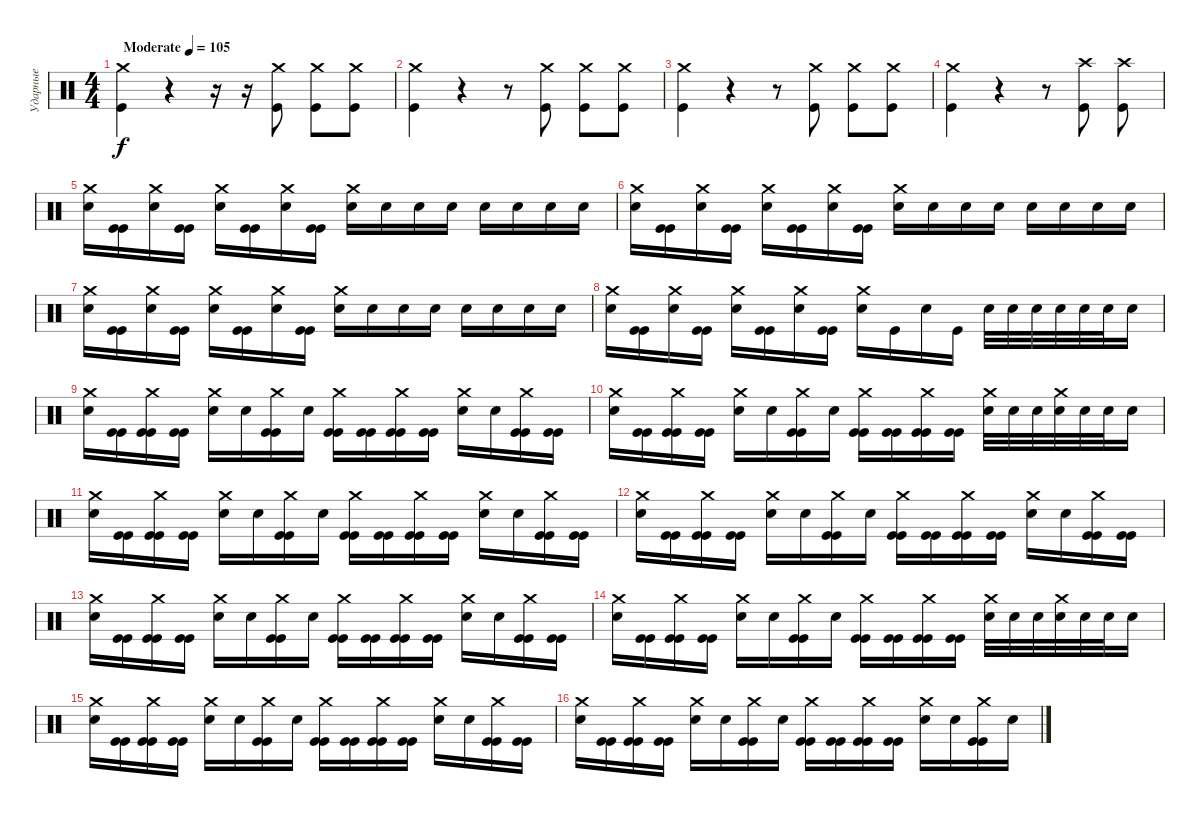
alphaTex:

\track ("Ударные" "Ударные") {instrument percussion}
\staff {score}
\articulation defaults
\ts (4 4)
\tempo (105 "Moderate")
\clef neutral
\ks c
("Crash medium (hit)" "Kick (hit)").4{dy f} r.4 r.16 r.16 ("Crash medium (hit)" "Kick (hit)").8 ("Crash medium (hit)" "Kick (hit)").8 ("Crash medium (hit)" "Kick (hit)").8 |
("Crash medium (hit)" "Kick (hit)").4 r.4 r.8 ("Crash medium (hit)" "Kick (hit)").8 ("Crash medium (hit)" "Kick (hit)").8 ("Crash medium (hit)" "Kick (hit)").8 |
("Crash medium (hit)" "Kick (hit)").4 r.4 r.8 ("Crash medium (hit)" "Kick (hit)").8 ("Crash medium (hit)" "Kick (hit)").8 ("Crash medium (hit)" "Kick (hit)").8 |
("Crash medium (hit)" "Kick (hit)").4 r.4 r.8 ("Crash high (hit)" "Kick (hit)").8 ("Crash high (hit)" "Kick (hit)").8 |
("Crash medium (hit)" "Electric Snare (hit)").16 ("Kick (hit)" "Kick (hit)").16 ("Crash medium (hit)" "Electric Snare (hit)").16 ("Kick (hit)" "Kick (hit)").16 ("Crash medium (hit)" "Electric Snare (hit)").16 ("Kick (hit)" "Kick (hit)").16 ("Crash medium (hit)" "Electric Snare (hit)").16 ("Kick (hit)" "Kick (hit)").16 ("Crash medium (hit)" "Electric Snare (hit)").16 "Electric Snare (hit)".16 "Electric Snare (hit)".16 "Electric Snare (hit)".16 "Electric Snare (hit)".16 "Electric Snare (hit)".16 "Electric Snare (hit)".16 "Electric Snare (hit)".16 |
("Crash medium (hit)" "Electric Snare (hit)").16 ("Kick (hit)" "Kick (hit)").16 ("Crash medium (hit)" "Electric Snare (hit)").16 ("Kick (hit)" "Kick (hit)").16 ("Crash medium (hit)" "Electric Snare (hit)").16 ("Kick (hit)" "Kick (hit)").16 ("Crash medium (hit)" "Electric Snare (hit)").16 ("Kick (hit)" "Kick (hit)").16 ("Crash medium (hit)" "Electric Snare (hit)").16 "Electric Snare (hit)".16 "Electric Snare (hit)".16 "Electric Snare (hit)".16 "Electric Snare (hit)".16 "Electric Snare (hit)".16 "Electric Snare (hit)".16 "Electric Snare (hit)".16 |
("Crash medium (hit)" "Electric Snare (hit)").16 ("Kick (hit)" "Kick (hit)").16 ("Crash medium (hit)" "Electric Snare (hit)").16 ("Kick (hit)" "Kick (hit)").16 ("Crash medium (hit)" "Electric Snare (hit)").16 ("Kick (hit)" "Kick (hit)").16 ("Crash medium (hit)" "Electric Snare (hit)").16 ("Kick (hit)" "Kick (hit)").16 ("Crash medium (hit)" "Electric Snare (hit)").16 "Electric Snare (hit)".16 "Electric Snare (hit)".16 "Electric Snare (hit)".16 "Electric Snare (hit)".16 "Electric Snare (hit)".16 "Electric Snare (hit)".16 "Electric Snare (hit)".16 |
("Crash medium (hit)" "Electric Snare (hit)").16 ("Kick (hit)" "Kick (hit)").16 ("Crash medium (hit)" "Electric Snare (hit)").16 ("Kick (hit)" "Kick (hit)").16 ("Crash medium (hit)" "Electric Snare (hit)").16 ("Kick (hit)" "Kick (hit)").16 ("Crash medium (hit)" "Electric Snare (hit)").16 ("Kick (hit)" "Kick (hit)").16 ("Crash medium (hit)" "Electric Snare (hit)").16 "Kick (hit)".16 "Electric Snare (hit)".16 "Kick (hit)".16 "Electric Snare (hit)".32 "Electric Snare (hit)".32 "Electric Snare (hit)".32 "Electric Snare (hit)".32 "Electric Snare (hit)".32 "Electric Snare (hit)".32 "Electric Snare (hit)".16 |
("Crash medium (hit)" "Electric Snare (hit)").16 ("Kick (hit)" "Kick (hit)").16 ("Crash medium (hit)" "Kick (hit)" "Kick (hit)").16 ("Kick (hit)" "Kick (hit)").16 ("Crash medium (hit)" "Electric Snare (hit)").16 "Electric Snare (hit)".16 ("Crash medium (hit)" "Kick (hit)" "Kick (hit)").16 "Electric Snare (hit)".16 ("Crash medium (hit)" "Kick (hit)" "Kick (hit)").16 ("Kick (hit)" "Kick (hit)").16 ("Crash medium (hit)" "Kick (hit)" "Kick (hit)").16 ("Kick (hit)" "Kick (hit)").16 ("Crash medium (hit)" "Electric Snare (hit)").16 "Electric Snare (hit)".16 ("Crash medium (hit)" "Kick (hit)" "Kick (hit)").16 ("Kick (hit)" "Kick (hit)").16 |
("Crash medium (hit)" "Electric Snare (hit)").16 ("Kick (hit)" "Kick (hit)").16 ("Crash medium (hit)" "Kick (hit)" "Kick (hit)").16 ("Kick (hit)" "Kick (hit)").16 ("Crash medium (hit)" "Electric Snare (hit)").16 "Electric Snare (hit)".16 ("Crash medium (hit)" "Kick (hit)" "Kick (hit)").16 "Electric Snare (hit)".16 ("Crash medium (hit)" "Kick (hit)" "Kick (hit)").16 ("Kick (hit)" "Kick (hit)").16 ("Crash medium (hit)" "Kick (hit)" "Kick (hit)").16 ("Kick (hit)" "Kick (hit)").16 ("Crash medium (hit)" "Electric Snare (hit)").32 "Electric Snare (hit)".32 "Electric Snare (hit)".32 ("Crash medium (hit)" "Electric Snare (hit)").32 "Electric Snare (hit)".32 "Electric Snare (hit)".32 "Electric Snare (hit)".16 |
("Crash medium (hit)" "Electric Snare (hit)").16 ("Kick (hit)" "Kick (hit)").16 ("Crash medium (hit)" "Kick (hit)" "Kick (hit)").16 ("Kick (hit)" "Kick (hit)").16 ("Crash medium (hit)" "Electric Snare (hit)").16 "Electric Snare (hit)".16 ("Crash medium (hit)" "Kick (hit)" "Kick (hit)").16 "Electric Snare (hit)".16 ("Crash medium (hit)" "Kick (hit)" "Kick (hit)").16 ("Kick (hit)" "Kick (hit)").16 ("Crash medium (hit)" "Kick (hit)" "Kick (hit)").16 ("Kick (hit)" "Kick (hit)").16 ("Crash medium (hit)" "Electric Snare (hit)").16 "Electric Snare (hit)".16 ("Crash medium (hit)" "Kick (hit)" "Kick (hit)").16 ("Kick (hit)" "Kick (hit)").16 |
("Crash medium (hit)" "Electric Snare (hit)").16 ("Kick (hit)" "Kick (hit)").16 ("Crash medium (hit)" "Kick (hit)" "Kick (hit)").16 ("Kick (hit)" "Kick (hit)").16 ("Crash medium (hit)" "Electric Snare (hit)").16 "Electric Snare (hit)".16 ("Crash medium (hit)" "Kick (hit)" "Kick (hit)").16 "Electric Snare (hit)".16 ("Crash medium (hit)" "Kick (hit)" "Kick (hit)").16 ("Kick (hit)" "Kick (hit)").16 ("Crash medium (hit)" "Kick (hit)" "Kick (hit)").16 ("Kick (hit)" "Kick (hit)").16 ("Crash medium (hit)" "Electric Snare (hit)").16 "Electric Snare (hit)".16 ("Crash medium (hit)" "Kick (hit)" "Kick (hit)").16 ("Kick (hit)" "Kick (hit)").16 |
("Crash medium (hit)" "Electric Snare (hit)").16 ("Kick (hit)" "Kick (hit)").16 ("Crash medium (hit)" "Kick (hit)" "Kick (hit)").16 ("Kick (hit)" "Kick (hit)").16 ("Crash medium (hit)" "Electric Snare (hit)").16 "Electric Snare (hit)".16 ("Crash medium (hit)" "Kick (hit)" "Kick (hit)").16 "Electric Snare (hit)".16 ("Crash medium (hit)" "Kick (hit)" "Kick (hit)").16 ("Kick (hit)" "Kick (hit)").16 ("Crash medium (hit)" "Kick (hit)" "Kick (hit)").16 ("Kick (hit)" "Kick (hit)").16 ("Crash medium (hit)" "Electric Snare (hit)").16 "Electric Snare (hit)".16 ("Crash medium (hit)" "Kick (hit)" "Kick (hit)").16 ("Kick (hit)" "Kick (hit)").16 |
("Crash medium (hit)" "Electric Snare (hit)").16 ("Kick (hit)" "Kick (hit)").16 ("Crash medium (hit)" "Kick (hit)" "Kick (hit)").16 ("Kick (hit)" "Kick (hit)").16 ("Crash medium (hit)" "Electric Snare (hit)").16 "Electric Snare (hit)".16 ("Crash medium (hit)" "Kick (hit)" "Kick (hit)").16 "Electric Snare (hit)".16 ("Crash medium (hit)" "Kick (hit)" "Kick (hit)").16 ("Kick (hit)" "Kick (hit)").16 ("Crash medium (hit)" "Kick (hit)" "Kick (hit)").16 ("Kick (hit)" "Kick (hit)").16 ("Crash medium (hit)" "Electric Snare (hit)").32 "Electric Snare (hit)".32 "Electric Snare (hit)".32 ("Crash medium (hit)" "Electric Snare (hit)").32 "Electric Snare (hit)".32 "Electric Snare (hit)".32 "Electric Snare (hit)".16 |
("Crash medium (hit)" "Electric Snare (hit)").16 ("Kick (hit)" "Kick (hit)").16 ("Crash medium (hit)" "Kick (hit)" "Kick (hit)").16 ("Kick (hit)" "Kick (hit)").16 ("Crash medium (hit)" "Electric Snare (hit)").16 "Electric Snare (hit)".16 ("Crash medium (hit)" "Kick (hit)" "Kick (hit)").16 "Electric Snare (hit)".16 ("Crash medium (hit)" "Kick (hit)" "Kick (hit)").16 ("Kick (hit)" "Kick (hit)").16 ("Crash medium (hit)" "Kick (hit)" "Kick (hit)").16 ("Kick (hit)" "Kick (hit)").16 ("Crash medium (hit)" "Electric Snare (hit)").16 "Electric Snare (hit)".16 ("Crash medium (hit)" "Kick (hit)" "Kick (hit)").16 ("Kick (hit)" "Kick (hit)").16 |
("Crash medium (hit)" "Electric Snare (hit)").16 ("Kick (hit)" "Kick (hit)").16 ("Crash medium (hit)" "Kick (hit)" "Kick (hit)").16 ("Kick (hit)" "Kick (hit)").16 ("Crash medium (hit)" "Electric Snare (hit)").16 "Electric Snare (hit)".16 ("Crash medium (hit)" "Kick (hit)" "Kick (hit)").16 "Electric Snare (hit)".16 ("Crash medium (hit)" "Kick (hit)" "Kick (hit)").16 ("Kick (hit)" "Kick (hit)").16 ("Crash medium (hit)" "Kick (hit)" "Kick (hit)").16 ("Kick (hit)" "Kick (hit)").16 ("Crash medium (hit)" "Electric Snare (hit)").16 "Electric Snare (hit)".16 ("Crash medium (hit)" "Kick (hit)" "Kick (hit)").16 "Electric Snare (hit)".16
